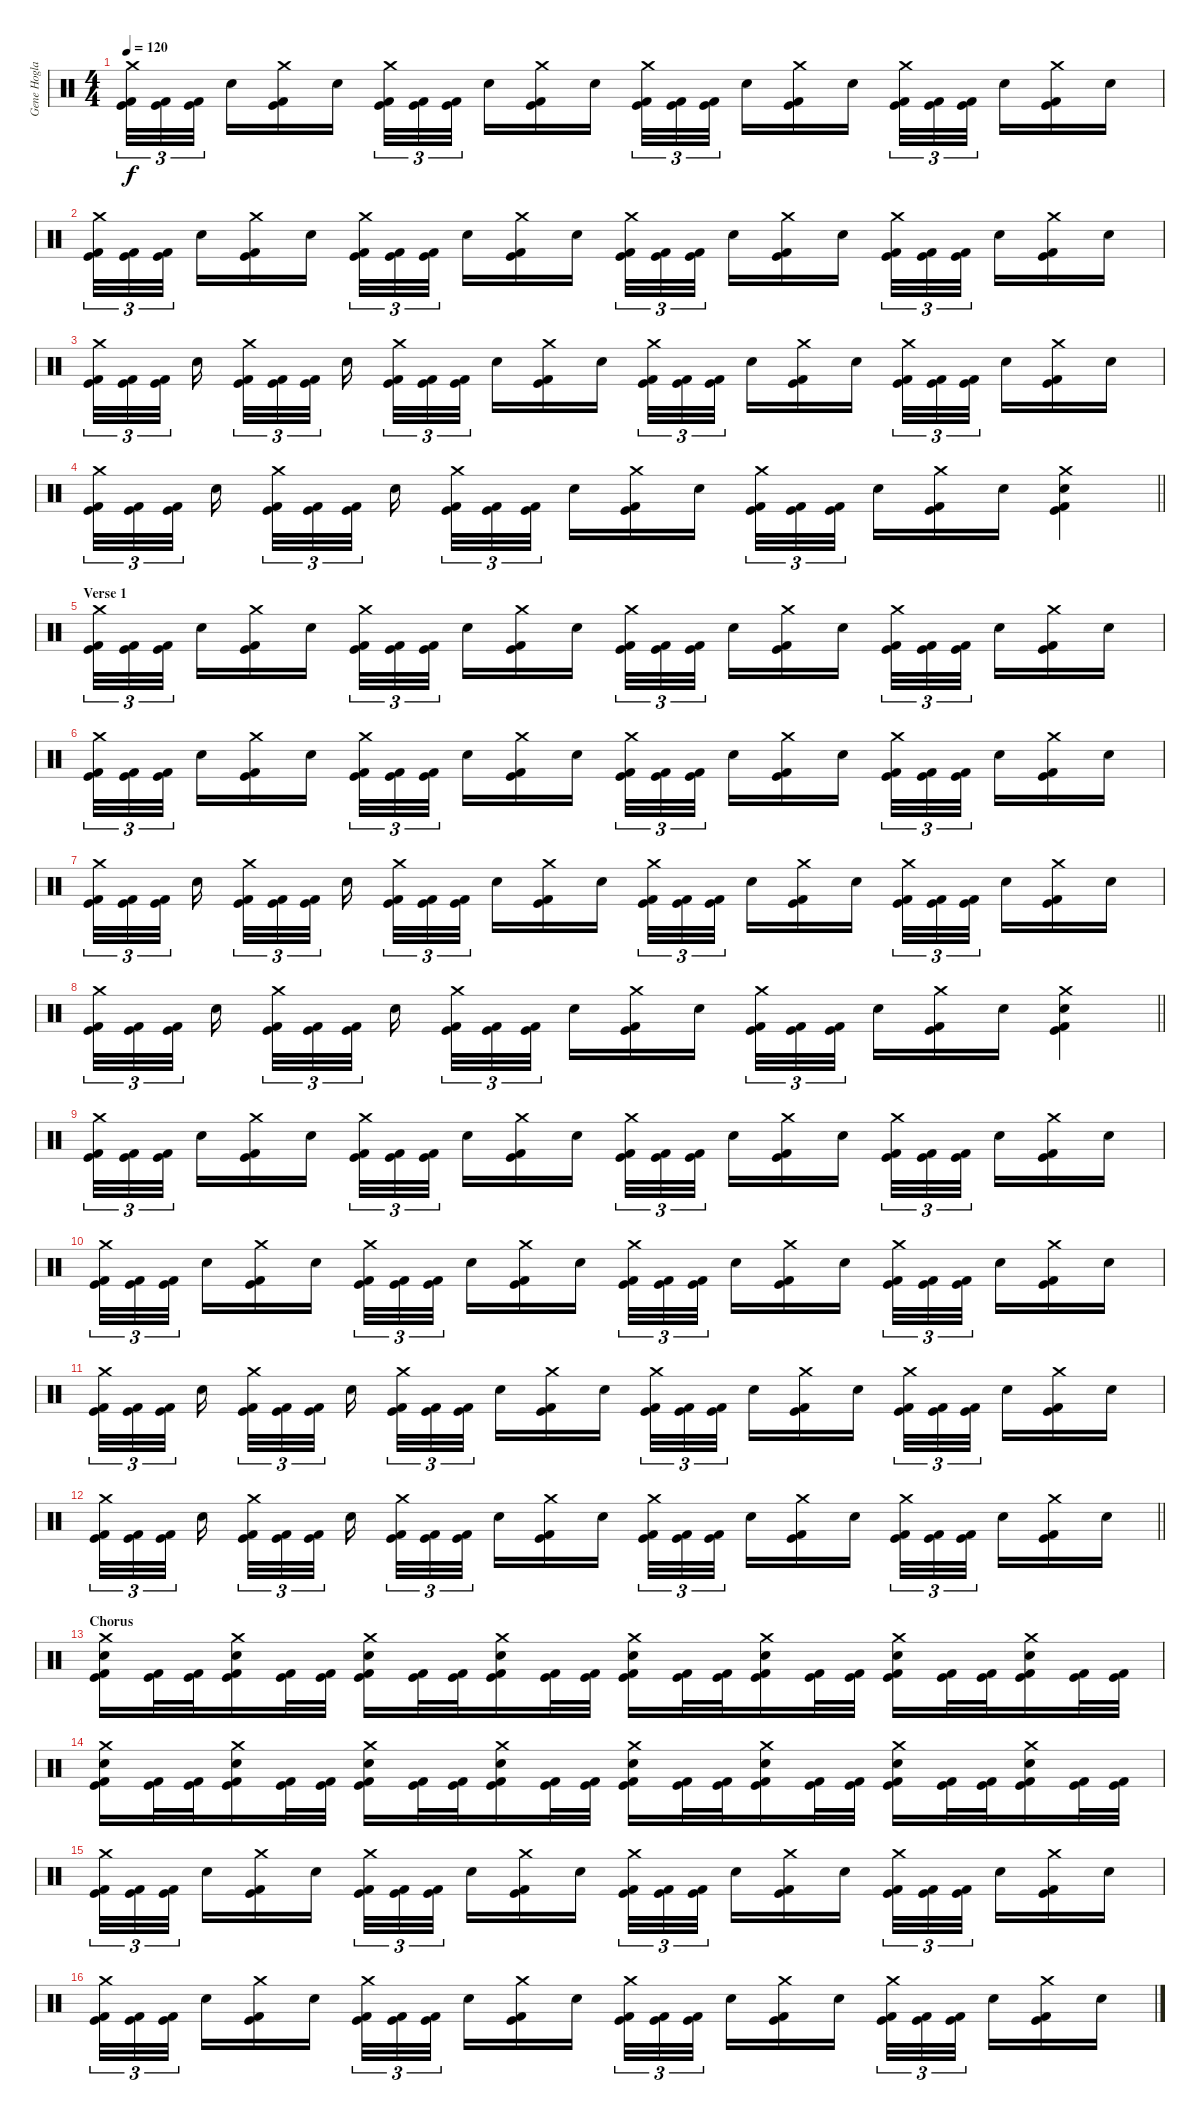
\track ("Gene Hogland" "Gene Hogla") {instrument percussion}
\staff {score}
\articulation defaults
\ts (4 4)
\tempo 120
\clef neutral
\ks c
("Crash medium (hit)" "Kick (hit)" "Kick (hit) 2").32{tu (3 2) dy f} ("Kick (hit)" "Kick (hit) 2").32{tu (3 2)} ("Kick (hit)" "Kick (hit) 2").32{tu (3 2)} "Electric Snare (hit)".16 ("Crash medium (hit)" "Kick (hit)" "Kick (hit) 2").16 "Electric Snare (hit)".16 ("Crash medium (hit)" "Kick (hit)" "Kick (hit) 2").32{tu (3 2)} ("Kick (hit)" "Kick (hit) 2").32{tu (3 2)} ("Kick (hit)" "Kick (hit) 2").32{tu (3 2)} "Electric Snare (hit)".16 ("Crash medium (hit)" "Kick (hit)" "Kick (hit) 2").16 "Electric Snare (hit)".16 ("Crash medium (hit)" "Kick (hit)" "Kick (hit) 2").32{tu (3 2)} ("Kick (hit)" "Kick (hit) 2").32{tu (3 2)} ("Kick (hit)" "Kick (hit) 2").32{tu (3 2)} "Electric Snare (hit)".16 ("Crash medium (hit)" "Kick (hit)" "Kick (hit) 2").16 "Electric Snare (hit)".16 ("Crash medium (hit)" "Kick (hit)" "Kick (hit) 2").32{tu (3 2)} ("Kick (hit)" "Kick (hit) 2").32{tu (3 2)} ("Kick (hit)" "Kick (hit) 2").32{tu (3 2)} "Electric Snare (hit)".16 ("Crash medium (hit)" "Kick (hit)" "Kick (hit) 2").16 "Electric Snare (hit)".16 |
("Crash medium (hit)" "Kick (hit)" "Kick (hit) 2").32{tu (3 2)} ("Kick (hit)" "Kick (hit) 2").32{tu (3 2)} ("Kick (hit)" "Kick (hit) 2").32{tu (3 2)} "Electric Snare (hit)".16 ("Crash medium (hit)" "Kick (hit)" "Kick (hit) 2").16 "Electric Snare (hit)".16 ("Crash medium (hit)" "Kick (hit)" "Kick (hit) 2").32{tu (3 2)} ("Kick (hit)" "Kick (hit) 2").32{tu (3 2)} ("Kick (hit)" "Kick (hit) 2").32{tu (3 2)} "Electric Snare (hit)".16 ("Crash medium (hit)" "Kick (hit)" "Kick (hit) 2").16 "Electric Snare (hit)".16 ("Crash medium (hit)" "Kick (hit)" "Kick (hit) 2").32{tu (3 2)} ("Kick (hit)" "Kick (hit) 2").32{tu (3 2)} ("Kick (hit)" "Kick (hit) 2").32{tu (3 2)} "Electric Snare (hit)".16 ("Crash medium (hit)" "Kick (hit)" "Kick (hit) 2").16 "Electric Snare (hit)".16 ("Crash medium (hit)" "Kick (hit)" "Kick (hit) 2").32{tu (3 2)} ("Kick (hit)" "Kick (hit) 2").32{tu (3 2)} ("Kick (hit)" "Kick (hit) 2").32{tu (3 2)} "Electric Snare (hit)".16 ("Crash medium (hit)" "Kick (hit)" "Kick (hit) 2").16 "Electric Snare (hit)".16 |
("Crash medium (hit)" "Kick (hit)" "Kick (hit) 2").32{tu (3 2)} ("Kick (hit)" "Kick (hit) 2").32{tu (3 2)} ("Kick (hit)" "Kick (hit) 2").32{tu (3 2)} "Electric Snare (hit)".16 ("Crash medium (hit)" "Kick (hit)" "Kick (hit) 2").32{tu (3 2)} ("Kick (hit)" "Kick (hit) 2").32{tu (3 2)} ("Kick (hit)" "Kick (hit) 2").32{tu (3 2)} "Electric Snare (hit)".16 ("Crash medium (hit)" "Kick (hit)" "Kick (hit) 2").32{tu (3 2)} ("Kick (hit)" "Kick (hit) 2").32{tu (3 2)} ("Kick (hit)" "Kick (hit) 2").32{tu (3 2)} "Electric Snare (hit)".16 ("Crash medium (hit)" "Kick (hit)" "Kick (hit) 2").16 "Electric Snare (hit)".16 ("Crash medium (hit)" "Kick (hit)" "Kick (hit) 2").32{tu (3 2)} ("Kick (hit)" "Kick (hit) 2").32{tu (3 2)} ("Kick (hit)" "Kick (hit) 2").32{tu (3 2)} "Electric Snare (hit)".16 ("Crash medium (hit)" "Kick (hit)" "Kick (hit) 2").16 "Electric Snare (hit)".16 ("Crash medium (hit)" "Kick (hit)" "Kick (hit) 2").32{tu (3 2)} ("Kick (hit)" "Kick (hit) 2").32{tu (3 2)} ("Kick (hit)" "Kick (hit) 2").32{tu (3 2)} "Electric Snare (hit)".16 ("Crash medium (hit)" "Kick (hit)" "Kick (hit) 2").16 "Electric Snare (hit)".16 |
\barLineRight lightlight
("Crash medium (hit)" "Kick (hit)" "Kick (hit) 2").32{tu (3 2)} ("Kick (hit)" "Kick (hit) 2").32{tu (3 2)} ("Kick (hit)" "Kick (hit) 2").32{tu (3 2)} "Electric Snare (hit)".16 ("Crash medium (hit)" "Kick (hit)" "Kick (hit) 2").32{tu (3 2)} ("Kick (hit)" "Kick (hit) 2").32{tu (3 2)} ("Kick (hit)" "Kick (hit) 2").32{tu (3 2)} "Electric Snare (hit)".16 ("Crash medium (hit)" "Kick (hit)" "Kick (hit) 2").32{tu (3 2)} ("Kick (hit)" "Kick (hit) 2").32{tu (3 2)} ("Kick (hit)" "Kick (hit) 2").32{tu (3 2)} "Electric Snare (hit)".16 ("Crash medium (hit)" "Kick (hit)" "Kick (hit) 2").16 "Electric Snare (hit)".16 ("Crash medium (hit)" "Kick (hit)" "Kick (hit) 2").32{tu (3 2)} ("Kick (hit)" "Kick (hit) 2").32{tu (3 2)} ("Kick (hit)" "Kick (hit) 2").32{tu (3 2)} "Electric Snare (hit)".16 ("Crash medium (hit)" "Kick (hit)" "Kick (hit) 2").16 "Electric Snare (hit)".16 ("Crash medium (hit)" "Electric Snare (hit)" "Kick (hit)" "Kick (hit) 2").4 |
\section ("" "Verse 1")
("Crash medium (hit)" "Kick (hit)" "Kick (hit) 2").32{tu (3 2)} ("Kick (hit)" "Kick (hit) 2").32{tu (3 2)} ("Kick (hit)" "Kick (hit) 2").32{tu (3 2)} "Electric Snare (hit)".16 ("Crash medium (hit)" "Kick (hit)" "Kick (hit) 2").16 "Electric Snare (hit)".16 ("Crash medium (hit)" "Kick (hit)" "Kick (hit) 2").32{tu (3 2)} ("Kick (hit)" "Kick (hit) 2").32{tu (3 2)} ("Kick (hit)" "Kick (hit) 2").32{tu (3 2)} "Electric Snare (hit)".16 ("Crash medium (hit)" "Kick (hit)" "Kick (hit) 2").16 "Electric Snare (hit)".16 ("Crash medium (hit)" "Kick (hit)" "Kick (hit) 2").32{tu (3 2)} ("Kick (hit)" "Kick (hit) 2").32{tu (3 2)} ("Kick (hit)" "Kick (hit) 2").32{tu (3 2)} "Electric Snare (hit)".16 ("Crash medium (hit)" "Kick (hit)" "Kick (hit) 2").16 "Electric Snare (hit)".16 ("Crash medium (hit)" "Kick (hit)" "Kick (hit) 2").32{tu (3 2)} ("Kick (hit)" "Kick (hit) 2").32{tu (3 2)} ("Kick (hit)" "Kick (hit) 2").32{tu (3 2)} "Electric Snare (hit)".16 ("Crash medium (hit)" "Kick (hit)" "Kick (hit) 2").16 "Electric Snare (hit)".16 |
("Crash medium (hit)" "Kick (hit)" "Kick (hit) 2").32{tu (3 2)} ("Kick (hit)" "Kick (hit) 2").32{tu (3 2)} ("Kick (hit)" "Kick (hit) 2").32{tu (3 2)} "Electric Snare (hit)".16 ("Crash medium (hit)" "Kick (hit)" "Kick (hit) 2").16 "Electric Snare (hit)".16 ("Crash medium (hit)" "Kick (hit)" "Kick (hit) 2").32{tu (3 2)} ("Kick (hit)" "Kick (hit) 2").32{tu (3 2)} ("Kick (hit)" "Kick (hit) 2").32{tu (3 2)} "Electric Snare (hit)".16 ("Crash medium (hit)" "Kick (hit)" "Kick (hit) 2").16 "Electric Snare (hit)".16 ("Crash medium (hit)" "Kick (hit)" "Kick (hit) 2").32{tu (3 2)} ("Kick (hit)" "Kick (hit) 2").32{tu (3 2)} ("Kick (hit)" "Kick (hit) 2").32{tu (3 2)} "Electric Snare (hit)".16 ("Crash medium (hit)" "Kick (hit)" "Kick (hit) 2").16 "Electric Snare (hit)".16 ("Crash medium (hit)" "Kick (hit)" "Kick (hit) 2").32{tu (3 2)} ("Kick (hit)" "Kick (hit) 2").32{tu (3 2)} ("Kick (hit)" "Kick (hit) 2").32{tu (3 2)} "Electric Snare (hit)".16 ("Crash medium (hit)" "Kick (hit)" "Kick (hit) 2").16 "Electric Snare (hit)".16 |
("Crash medium (hit)" "Kick (hit)" "Kick (hit) 2").32{tu (3 2)} ("Kick (hit)" "Kick (hit) 2").32{tu (3 2)} ("Kick (hit)" "Kick (hit) 2").32{tu (3 2)} "Electric Snare (hit)".16 ("Crash medium (hit)" "Kick (hit)" "Kick (hit) 2").32{tu (3 2)} ("Kick (hit)" "Kick (hit) 2").32{tu (3 2)} ("Kick (hit)" "Kick (hit) 2").32{tu (3 2)} "Electric Snare (hit)".16 ("Crash medium (hit)" "Kick (hit)" "Kick (hit) 2").32{tu (3 2)} ("Kick (hit)" "Kick (hit) 2").32{tu (3 2)} ("Kick (hit)" "Kick (hit) 2").32{tu (3 2)} "Electric Snare (hit)".16 ("Crash medium (hit)" "Kick (hit)" "Kick (hit) 2").16 "Electric Snare (hit)".16 ("Crash medium (hit)" "Kick (hit)" "Kick (hit) 2").32{tu (3 2)} ("Kick (hit)" "Kick (hit) 2").32{tu (3 2)} ("Kick (hit)" "Kick (hit) 2").32{tu (3 2)} "Electric Snare (hit)".16 ("Crash medium (hit)" "Kick (hit)" "Kick (hit) 2").16 "Electric Snare (hit)".16 ("Crash medium (hit)" "Kick (hit)" "Kick (hit) 2").32{tu (3 2)} ("Kick (hit)" "Kick (hit) 2").32{tu (3 2)} ("Kick (hit)" "Kick (hit) 2").32{tu (3 2)} "Electric Snare (hit)".16 ("Crash medium (hit)" "Kick (hit)" "Kick (hit) 2").16 "Electric Snare (hit)".16 |
\barLineRight lightlight
("Crash medium (hit)" "Kick (hit)" "Kick (hit) 2").32{tu (3 2)} ("Kick (hit)" "Kick (hit) 2").32{tu (3 2)} ("Kick (hit)" "Kick (hit) 2").32{tu (3 2)} "Electric Snare (hit)".16 ("Crash medium (hit)" "Kick (hit)" "Kick (hit) 2").32{tu (3 2)} ("Kick (hit)" "Kick (hit) 2").32{tu (3 2)} ("Kick (hit)" "Kick (hit) 2").32{tu (3 2)} "Electric Snare (hit)".16 ("Crash medium (hit)" "Kick (hit)" "Kick (hit) 2").32{tu (3 2)} ("Kick (hit)" "Kick (hit) 2").32{tu (3 2)} ("Kick (hit)" "Kick (hit) 2").32{tu (3 2)} "Electric Snare (hit)".16 ("Crash medium (hit)" "Kick (hit)" "Kick (hit) 2").16 "Electric Snare (hit)".16 ("Crash medium (hit)" "Kick (hit)" "Kick (hit) 2").32{tu (3 2)} ("Kick (hit)" "Kick (hit) 2").32{tu (3 2)} ("Kick (hit)" "Kick (hit) 2").32{tu (3 2)} "Electric Snare (hit)".16 ("Crash medium (hit)" "Kick (hit)" "Kick (hit) 2").16 "Electric Snare (hit)".16 ("Crash medium (hit)" "Electric Snare (hit)" "Kick (hit)" "Kick (hit) 2").4 |
("Crash medium (hit)" "Kick (hit)" "Kick (hit) 2").32{tu (3 2)} ("Kick (hit)" "Kick (hit) 2").32{tu (3 2)} ("Kick (hit)" "Kick (hit) 2").32{tu (3 2)} "Electric Snare (hit)".16 ("Crash medium (hit)" "Kick (hit)" "Kick (hit) 2").16 "Electric Snare (hit)".16 ("Crash medium (hit)" "Kick (hit)" "Kick (hit) 2").32{tu (3 2)} ("Kick (hit)" "Kick (hit) 2").32{tu (3 2)} ("Kick (hit)" "Kick (hit) 2").32{tu (3 2)} "Electric Snare (hit)".16 ("Crash medium (hit)" "Kick (hit)" "Kick (hit) 2").16 "Electric Snare (hit)".16 ("Crash medium (hit)" "Kick (hit)" "Kick (hit) 2").32{tu (3 2)} ("Kick (hit)" "Kick (hit) 2").32{tu (3 2)} ("Kick (hit)" "Kick (hit) 2").32{tu (3 2)} "Electric Snare (hit)".16 ("Crash medium (hit)" "Kick (hit)" "Kick (hit) 2").16 "Electric Snare (hit)".16 ("Crash medium (hit)" "Kick (hit)" "Kick (hit) 2").32{tu (3 2)} ("Kick (hit)" "Kick (hit) 2").32{tu (3 2)} ("Kick (hit)" "Kick (hit) 2").32{tu (3 2)} "Electric Snare (hit)".16 ("Crash medium (hit)" "Kick (hit)" "Kick (hit) 2").16 "Electric Snare (hit)".16 |
("Crash medium (hit)" "Kick (hit)" "Kick (hit) 2").32{tu (3 2)} ("Kick (hit)" "Kick (hit) 2").32{tu (3 2)} ("Kick (hit)" "Kick (hit) 2").32{tu (3 2)} "Electric Snare (hit)".16 ("Crash medium (hit)" "Kick (hit)" "Kick (hit) 2").16 "Electric Snare (hit)".16 ("Crash medium (hit)" "Kick (hit)" "Kick (hit) 2").32{tu (3 2)} ("Kick (hit)" "Kick (hit) 2").32{tu (3 2)} ("Kick (hit)" "Kick (hit) 2").32{tu (3 2)} "Electric Snare (hit)".16 ("Crash medium (hit)" "Kick (hit)" "Kick (hit) 2").16 "Electric Snare (hit)".16 ("Crash medium (hit)" "Kick (hit)" "Kick (hit) 2").32{tu (3 2)} ("Kick (hit)" "Kick (hit) 2").32{tu (3 2)} ("Kick (hit)" "Kick (hit) 2").32{tu (3 2)} "Electric Snare (hit)".16 ("Crash medium (hit)" "Kick (hit)" "Kick (hit) 2").16 "Electric Snare (hit)".16 ("Crash medium (hit)" "Kick (hit)" "Kick (hit) 2").32{tu (3 2)} ("Kick (hit)" "Kick (hit) 2").32{tu (3 2)} ("Kick (hit)" "Kick (hit) 2").32{tu (3 2)} "Electric Snare (hit)".16 ("Crash medium (hit)" "Kick (hit)" "Kick (hit) 2").16 "Electric Snare (hit)".16 |
("Crash medium (hit)" "Kick (hit)" "Kick (hit) 2").32{tu (3 2)} ("Kick (hit)" "Kick (hit) 2").32{tu (3 2)} ("Kick (hit)" "Kick (hit) 2").32{tu (3 2)} "Electric Snare (hit)".16 ("Crash medium (hit)" "Kick (hit)" "Kick (hit) 2").32{tu (3 2)} ("Kick (hit)" "Kick (hit) 2").32{tu (3 2)} ("Kick (hit)" "Kick (hit) 2").32{tu (3 2)} "Electric Snare (hit)".16 ("Crash medium (hit)" "Kick (hit)" "Kick (hit) 2").32{tu (3 2)} ("Kick (hit)" "Kick (hit) 2").32{tu (3 2)} ("Kick (hit)" "Kick (hit) 2").32{tu (3 2)} "Electric Snare (hit)".16 ("Crash medium (hit)" "Kick (hit)" "Kick (hit) 2").16 "Electric Snare (hit)".16 ("Crash medium (hit)" "Kick (hit)" "Kick (hit) 2").32{tu (3 2)} ("Kick (hit)" "Kick (hit) 2").32{tu (3 2)} ("Kick (hit)" "Kick (hit) 2").32{tu (3 2)} "Electric Snare (hit)".16 ("Crash medium (hit)" "Kick (hit)" "Kick (hit) 2").16 "Electric Snare (hit)".16 ("Crash medium (hit)" "Kick (hit)" "Kick (hit) 2").32{tu (3 2)} ("Kick (hit)" "Kick (hit) 2").32{tu (3 2)} ("Kick (hit)" "Kick (hit) 2").32{tu (3 2)} "Electric Snare (hit)".16 ("Crash medium (hit)" "Kick (hit)" "Kick (hit) 2").16 "Electric Snare (hit)".16 |
\barLineRight lightlight
("Crash medium (hit)" "Kick (hit)" "Kick (hit) 2").32{tu (3 2)} ("Kick (hit)" "Kick (hit) 2").32{tu (3 2)} ("Kick (hit)" "Kick (hit) 2").32{tu (3 2)} "Electric Snare (hit)".16 ("Crash medium (hit)" "Kick (hit)" "Kick (hit) 2").32{tu (3 2)} ("Kick (hit)" "Kick (hit) 2").32{tu (3 2)} ("Kick (hit)" "Kick (hit) 2").32{tu (3 2)} "Electric Snare (hit)".16 ("Crash medium (hit)" "Kick (hit)" "Kick (hit) 2").32{tu (3 2)} ("Kick (hit)" "Kick (hit) 2").32{tu (3 2)} ("Kick (hit)" "Kick (hit) 2").32{tu (3 2)} "Electric Snare (hit)".16 ("Crash medium (hit)" "Kick (hit)" "Kick (hit) 2").16 "Electric Snare (hit)".16 ("Crash medium (hit)" "Kick (hit)" "Kick (hit) 2").32{tu (3 2)} ("Kick (hit)" "Kick (hit) 2").32{tu (3 2)} ("Kick (hit)" "Kick (hit) 2").32{tu (3 2)} "Electric Snare (hit)".16 ("Crash medium (hit)" "Kick (hit)" "Kick (hit) 2").16 "Electric Snare (hit)".16 ("Crash medium (hit)" "Kick (hit)" "Kick (hit) 2").32{tu (3 2)} ("Kick (hit)" "Kick (hit) 2").32{tu (3 2)} ("Kick (hit)" "Kick (hit) 2").32{tu (3 2)} "Electric Snare (hit)".16 ("Crash medium (hit)" "Kick (hit)" "Kick (hit) 2").16 "Electric Snare (hit)".16 |
\section ("" "Chorus")
("Crash medium (hit)" "Electric Snare (hit)" "Kick (hit)" "Kick (hit) 2").16 ("Kick (hit)" "Kick (hit) 2").32 ("Kick (hit)" "Kick (hit) 2").32 ("Crash medium (hit)" "Electric Snare (hit)" "Kick (hit)" "Kick (hit) 2").16 ("Kick (hit)" "Kick (hit) 2").32 ("Kick (hit)" "Kick (hit) 2").32 ("Crash medium (hit)" "Electric Snare (hit)" "Kick (hit)" "Kick (hit) 2").16 ("Kick (hit)" "Kick (hit) 2").32 ("Kick (hit)" "Kick (hit) 2").32 ("Crash medium (hit)" "Electric Snare (hit)" "Kick (hit)" "Kick (hit) 2").16 ("Kick (hit)" "Kick (hit) 2").32 ("Kick (hit)" "Kick (hit) 2").32 ("Crash medium (hit)" "Electric Snare (hit)" "Kick (hit)" "Kick (hit) 2").16 ("Kick (hit)" "Kick (hit) 2").32 ("Kick (hit)" "Kick (hit) 2").32 ("Crash medium (hit)" "Electric Snare (hit)" "Kick (hit)" "Kick (hit) 2").16 ("Kick (hit)" "Kick (hit) 2").32 ("Kick (hit)" "Kick (hit) 2").32 ("Crash medium (hit)" "Electric Snare (hit)" "Kick (hit)" "Kick (hit) 2").16 ("Kick (hit)" "Kick (hit) 2").32 ("Kick (hit)" "Kick (hit) 2").32 ("Crash medium (hit)" "Electric Snare (hit)" "Kick (hit)" "Kick (hit) 2").16 ("Kick (hit)" "Kick (hit) 2").32 ("Kick (hit)" "Kick (hit) 2").32 |
("Crash medium (hit)" "Electric Snare (hit)" "Kick (hit)" "Kick (hit) 2").16 ("Kick (hit)" "Kick (hit) 2").32 ("Kick (hit)" "Kick (hit) 2").32 ("Crash medium (hit)" "Electric Snare (hit)" "Kick (hit)" "Kick (hit) 2").16 ("Kick (hit)" "Kick (hit) 2").32 ("Kick (hit)" "Kick (hit) 2").32 ("Crash medium (hit)" "Electric Snare (hit)" "Kick (hit)" "Kick (hit) 2").16 ("Kick (hit)" "Kick (hit) 2").32 ("Kick (hit)" "Kick (hit) 2").32 ("Crash medium (hit)" "Electric Snare (hit)" "Kick (hit)" "Kick (hit) 2").16 ("Kick (hit)" "Kick (hit) 2").32 ("Kick (hit)" "Kick (hit) 2").32 ("Crash medium (hit)" "Electric Snare (hit)" "Kick (hit)" "Kick (hit) 2").16 ("Kick (hit)" "Kick (hit) 2").32 ("Kick (hit)" "Kick (hit) 2").32 ("Crash medium (hit)" "Electric Snare (hit)" "Kick (hit)" "Kick (hit) 2").16 ("Kick (hit)" "Kick (hit) 2").32 ("Kick (hit)" "Kick (hit) 2").32 ("Crash medium (hit)" "Electric Snare (hit)" "Kick (hit)" "Kick (hit) 2").16 ("Kick (hit)" "Kick (hit) 2").32 ("Kick (hit)" "Kick (hit) 2").32 ("Crash medium (hit)" "Electric Snare (hit)" "Kick (hit)" "Kick (hit) 2").16 ("Kick (hit)" "Kick (hit) 2").32 ("Kick (hit)" "Kick (hit) 2").32 |
("Crash medium (hit)" "Kick (hit)" "Kick (hit) 2").32{tu (3 2)} ("Kick (hit)" "Kick (hit) 2").32{tu (3 2)} ("Kick (hit)" "Kick (hit) 2").32{tu (3 2)} "Electric Snare (hit)".16 ("Crash medium (hit)" "Kick (hit)" "Kick (hit) 2").16 "Electric Snare (hit)".16 ("Crash medium (hit)" "Kick (hit)" "Kick (hit) 2").32{tu (3 2)} ("Kick (hit)" "Kick (hit) 2").32{tu (3 2)} ("Kick (hit)" "Kick (hit) 2").32{tu (3 2)} "Electric Snare (hit)".16 ("Crash medium (hit)" "Kick (hit)" "Kick (hit) 2").16 "Electric Snare (hit)".16 ("Crash medium (hit)" "Kick (hit)" "Kick (hit) 2").32{tu (3 2)} ("Kick (hit)" "Kick (hit) 2").32{tu (3 2)} ("Kick (hit)" "Kick (hit) 2").32{tu (3 2)} "Electric Snare (hit)".16 ("Crash medium (hit)" "Kick (hit)" "Kick (hit) 2").16 "Electric Snare (hit)".16 ("Crash medium (hit)" "Kick (hit)" "Kick (hit) 2").32{tu (3 2)} ("Kick (hit)" "Kick (hit) 2").32{tu (3 2)} ("Kick (hit)" "Kick (hit) 2").32{tu (3 2)} "Electric Snare (hit)".16 ("Crash medium (hit)" "Kick (hit)" "Kick (hit) 2").16 "Electric Snare (hit)".16 |
("Crash medium (hit)" "Kick (hit)" "Kick (hit) 2").32{tu (3 2)} ("Kick (hit)" "Kick (hit) 2").32{tu (3 2)} ("Kick (hit)" "Kick (hit) 2").32{tu (3 2)} "Electric Snare (hit)".16 ("Crash medium (hit)" "Kick (hit)" "Kick (hit) 2").16 "Electric Snare (hit)".16 ("Crash medium (hit)" "Kick (hit)" "Kick (hit) 2").32{tu (3 2)} ("Kick (hit)" "Kick (hit) 2").32{tu (3 2)} ("Kick (hit)" "Kick (hit) 2").32{tu (3 2)} "Electric Snare (hit)".16 ("Crash medium (hit)" "Kick (hit)" "Kick (hit) 2").16 "Electric Snare (hit)".16 ("Crash medium (hit)" "Kick (hit)" "Kick (hit) 2").32{tu (3 2)} ("Kick (hit)" "Kick (hit) 2").32{tu (3 2)} ("Kick (hit)" "Kick (hit) 2").32{tu (3 2)} "Electric Snare (hit)".16 ("Crash medium (hit)" "Kick (hit)" "Kick (hit) 2").16 "Electric Snare (hit)".16 ("Crash medium (hit)" "Kick (hit)" "Kick (hit) 2").32{tu (3 2)} ("Kick (hit)" "Kick (hit) 2").32{tu (3 2)} ("Kick (hit)" "Kick (hit) 2").32{tu (3 2)} "Electric Snare (hit)".16 ("Crash medium (hit)" "Kick (hit)" "Kick (hit) 2").16 "Electric Snare (hit)".16
